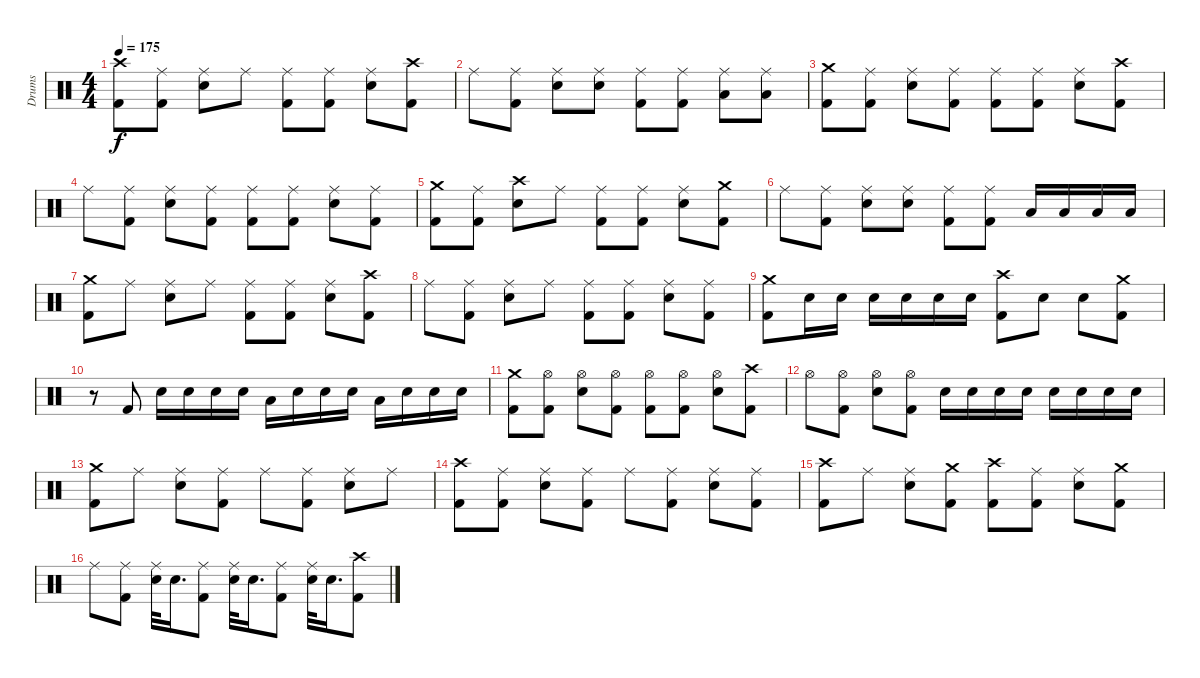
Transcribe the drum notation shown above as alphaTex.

\track ("Drums" "Drums") {instrument percussion}
\staff {score}
\articulation defaults
\ts (4 4)
\tempo 175
\clef neutral
\ks c
("Kick (hit) 2" "Crash high (hit)").8{dy f} ("Kick (hit) 2" "Ride (middle)").8 ("Snare (hit) 2" "Ride (middle)").8 "Ride (middle)".8 ("Kick (hit) 2" "Ride (middle)").8 ("Kick (hit) 2" "Ride (middle)").8 ("Snare (hit) 2" "Ride (middle)").8 ("Kick (hit) 2" "Crash high (hit)").8 |
"Ride (middle)".8 ("Kick (hit) 2" "Ride (middle)").8 ("Snare (hit) 2" "Ride (middle)").8 ("Snare (hit) 2" "Ride (middle)").8 ("Kick (hit) 2" "Ride (middle)").8 ("Kick (hit) 2" "Ride (middle)").8 ("Low Tom (hit)" "Ride (middle)").8 ("Low Tom (hit)" "Ride (middle)").8 |
("Kick (hit) 2" "Crash medium (hit)").8 ("Kick (hit) 2" "Ride (middle)").8 ("Snare (hit) 2" "Ride (middle)").8 ("Kick (hit) 2" "Ride (middle)").8 ("Kick (hit) 2" "Ride (middle)").8 ("Kick (hit) 2" "Ride (middle)").8 ("Snare (hit) 2" "Ride (middle)").8 ("Kick (hit) 2" "Crash high (hit)").8 |
"Ride (middle)".8 ("Kick (hit) 2" "Ride (middle)").8 ("Snare (hit) 2" "Ride (middle)").8 ("Kick (hit) 2" "Ride (middle)").8 ("Kick (hit) 2" "Ride (middle)").8 ("Kick (hit) 2" "Ride (middle)").8 ("Snare (hit) 2" "Ride (middle)").8 ("Kick (hit) 2" "Ride (middle)").8 |
("Kick (hit) 2" "Crash medium (hit)").8 ("Kick (hit) 2" "Ride (middle)").8 ("Snare (hit) 2" "Crash high (hit)").8 "Ride (middle)".8 ("Kick (hit) 2" "Ride (middle)").8 ("Kick (hit) 2" "Ride (middle)").8 ("Snare (hit) 2" "Ride (middle)").8 ("Kick (hit) 2" "Crash medium (hit)").8 |
"Ride (middle)".8 ("Kick (hit) 2" "Ride (middle)").8 ("Snare (hit) 2" "Ride (middle)").8 ("Snare (hit) 2" "Ride (middle)").8 ("Kick (hit) 2" "Ride (middle)").8 ("Kick (hit) 2" "Ride (middle)").8 "Low Tom (hit)".16 "Low Tom (hit)".16 "Low Tom (hit)".16 "Low Tom (hit)".16 |
("Kick (hit) 2" "Crash medium (hit)").8 "Ride (middle)".8 ("Snare (hit) 2" "Ride (middle)").8 "Ride (middle)".8 ("Kick (hit) 2" "Ride (middle)").8 ("Kick (hit) 2" "Ride (middle)").8 ("Snare (hit) 2" "Ride (middle)").8 ("Kick (hit) 2" "Crash high (hit)").8 |
"Ride (middle)".8 ("Kick (hit) 2" "Ride (middle)").8 ("Snare (hit) 2" "Ride (middle)").8 "Ride (middle)".8 ("Kick (hit) 2" "Ride (middle)").8 ("Kick (hit) 2" "Ride (middle)").8 ("Snare (hit) 2" "Ride (middle)").8 ("Kick (hit) 2" "Ride (middle)").8 |
("Kick (hit) 2" "Crash medium (hit)").8 "Snare (hit) 2".16 "Snare (hit) 2".16 "Snare (hit) 2".16 "Snare (hit) 2".16 "Snare (hit) 2".16 "Snare (hit) 2".16 ("Kick (hit) 2" "Crash high (hit)").8 "Snare (hit) 2".8 "Snare (hit) 2".8 ("Kick (hit) 2" "Crash medium (hit)").8 |
r.8 "Kick (hit) 2".8 "Snare (hit) 2".16 "Snare (hit) 2".16 "Snare (hit) 2".16 "Snare (hit) 2".16 "Low Tom (hit)".16 "Snare (hit) 2".16 "Snare (hit) 2".16 "Snare (hit) 2".16 "Low Tom (hit)".16 "Snare (hit) 2".16 "Snare (hit) 2".16 "Snare (hit) 2".16 |
("Kick (hit) 2" "Crash medium (hit)").8 ("Kick (hit) 2" "Hi-Hat (open)").8 ("Snare (hit) 2" "Hi-Hat (open)").8 ("Kick (hit) 2" "Hi-Hat (open)").8 ("Kick (hit) 2" "Hi-Hat (open)").8 ("Kick (hit) 2" "Hi-Hat (open)").8 ("Snare (hit) 2" "Hi-Hat (open)").8 ("Kick (hit) 2" "Crash high (hit)").8 |
"Hi-Hat (open)".8 ("Kick (hit) 2" "Hi-Hat (open)").8 ("Snare (hit) 2" "Hi-Hat (open)").8 ("Kick (hit) 2" "Hi-Hat (open)").8 "Snare (hit) 2".16 "Snare (hit) 2".16 "Snare (hit) 2".16 "Snare (hit) 2".16 "Snare (hit) 2".16 "Snare (hit) 2".16 "Snare (hit) 2".16 "Snare (hit) 2".16 |
("Kick (hit) 2" "Crash medium (hit)").8 "Ride (middle)".8 ("Snare (hit) 2" "Ride (middle)").8 ("Kick (hit) 2" "Ride (middle)").8 "Ride (middle)".8 ("Kick (hit) 2" "Ride (middle)").8 ("Snare (hit) 2" "Ride (middle)").8 "Ride (middle)".8 |
("Kick (hit) 2" "Crash high (hit)").8 ("Kick (hit) 2" "Ride (middle)").8 ("Snare (hit) 2" "Ride (middle)").8 ("Kick (hit) 2" "Ride (middle)").8 "Ride (middle)".8 ("Kick (hit) 2" "Ride (middle)").8 ("Snare (hit) 2" "Ride (middle)").8 ("Kick (hit) 2" "Ride (middle)").8 |
("Kick (hit) 2" "Crash high (hit)").8 "Ride (middle)".8 ("Snare (hit) 2" "Ride (middle)").8 ("Kick (hit) 2" "Crash medium (hit)").8 ("Kick (hit) 2" "Crash high (hit)").8 ("Kick (hit) 2" "Ride (middle)").8 ("Snare (hit) 2" "Ride (middle)").8 ("Kick (hit) 2" "Crash medium (hit)").8 |
"Ride (middle)".8 ("Kick (hit) 2" "Ride (middle)").8 ("Snare (hit) 2" "Ride (middle)").32 "Snare (hit) 2".16{d} ("Kick (hit) 2" "Ride (middle)").8 ("Snare (hit) 2" "Ride (middle)").32 "Snare (hit) 2".16{d} ("Kick (hit) 2" "Ride (middle)").8 ("Snare (hit) 2" "Ride (middle)").32 "Snare (hit) 2".16{d} ("Kick (hit) 2" "Crash high (hit)").8
